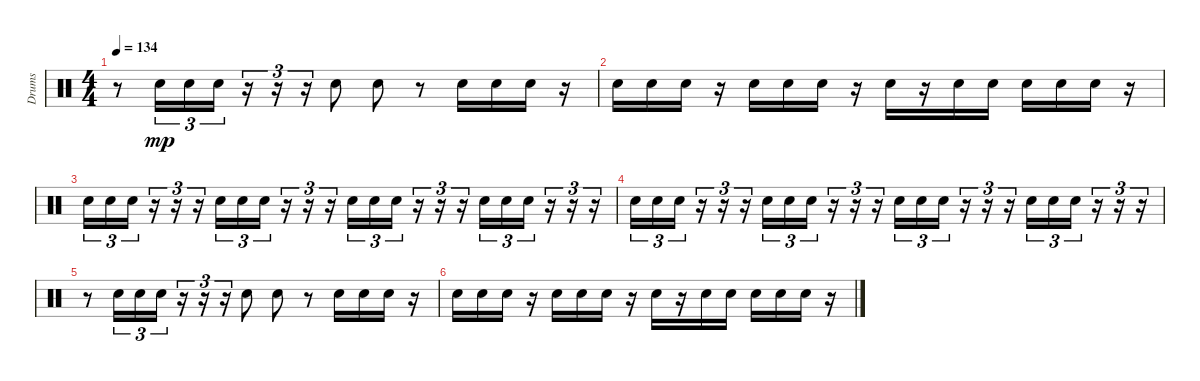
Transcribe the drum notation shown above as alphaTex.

\track ("Drums" "Drums") {instrument percussion}
\staff {score}
\articulation defaults
\ts (4 4)
\tempo 134
\clef neutral
\ks c
r.8{dy mp} "Snare (hit) 2".16{tu (3 2)} "Snare (hit) 2".16{tu (3 2)} "Snare (hit) 2".16{tu (3 2)} r.16{tu (3 2)} r.16{tu (3 2)} r.16{tu (3 2)} "Snare (hit) 2".8 "Snare (hit) 2".8 r.8 "Snare (hit) 2".16 "Snare (hit) 2".16 "Snare (hit) 2".16 r.16 |
"Snare (hit) 2".16 "Snare (hit) 2".16 "Snare (hit) 2".16 r.16 "Snare (hit) 2".16 "Snare (hit) 2".16 "Snare (hit) 2".16 r.16 "Snare (hit) 2".16 r.16 "Snare (hit) 2".16 "Snare (hit) 2".16 "Snare (hit) 2".16 "Snare (hit) 2".16 "Snare (hit) 2".16 r.16 |
"Snare (hit) 2".16{tu (3 2)} "Snare (hit) 2".16{tu (3 2)} "Snare (hit) 2".16{tu (3 2)} r.16{tu (3 2)} r.16{tu (3 2)} r.16{tu (3 2)} "Electric Snare (hit)".16{tu (3 2)} "Electric Snare (hit)".16{tu (3 2)} "Electric Snare (hit)".16{tu (3 2)} r.16{tu (3 2)} r.16{tu (3 2)} r.16{tu (3 2)} "Snare (hit) 2".16{tu (3 2)} "Snare (hit) 2".16{tu (3 2)} "Snare (hit) 2".16{tu (3 2)} r.16{tu (3 2)} r.16{tu (3 2)} r.16{tu (3 2)} "Electric Snare (hit)".16{tu (3 2)} "Electric Snare (hit)".16{tu (3 2)} "Electric Snare (hit)".16{tu (3 2)} r.16{tu (3 2)} r.16{tu (3 2)} r.16{tu (3 2)} |
"Snare (hit) 2".16{tu (3 2)} "Snare (hit) 2".16{tu (3 2)} "Snare (hit) 2".16{tu (3 2)} r.16{tu (3 2)} r.16{tu (3 2)} r.16{tu (3 2)} "Electric Snare (hit)".16{tu (3 2)} "Electric Snare (hit)".16{tu (3 2)} "Electric Snare (hit)".16{tu (3 2)} r.16{tu (3 2)} r.16{tu (3 2)} r.16{tu (3 2)} "Snare (hit) 2".16{tu (3 2)} "Snare (hit) 2".16{tu (3 2)} "Snare (hit) 2".16{tu (3 2)} r.16{tu (3 2)} r.16{tu (3 2)} r.16{tu (3 2)} "Electric Snare (hit)".16{tu (3 2)} "Electric Snare (hit)".16{tu (3 2)} "Electric Snare (hit)".16{tu (3 2)} r.16{tu (3 2)} r.16{tu (3 2)} r.16{tu (3 2)} |
r.8 "Snare (hit) 2".16{tu (3 2)} "Snare (hit) 2".16{tu (3 2)} "Snare (hit) 2".16{tu (3 2)} r.16{tu (3 2)} r.16{tu (3 2)} r.16{tu (3 2)} "Snare (hit) 2".8 "Snare (hit) 2".8 r.8 "Snare (hit) 2".16 "Snare (hit) 2".16 "Snare (hit) 2".16 r.16 |
"Snare (hit) 2".16 "Snare (hit) 2".16 "Snare (hit) 2".16 r.16 "Snare (hit) 2".16 "Snare (hit) 2".16 "Snare (hit) 2".16 r.16 "Snare (hit) 2".16 r.16 "Snare (hit) 2".16 "Snare (hit) 2".16 "Snare (hit) 2".16 "Snare (hit) 2".16 "Snare (hit) 2".16 r.16
